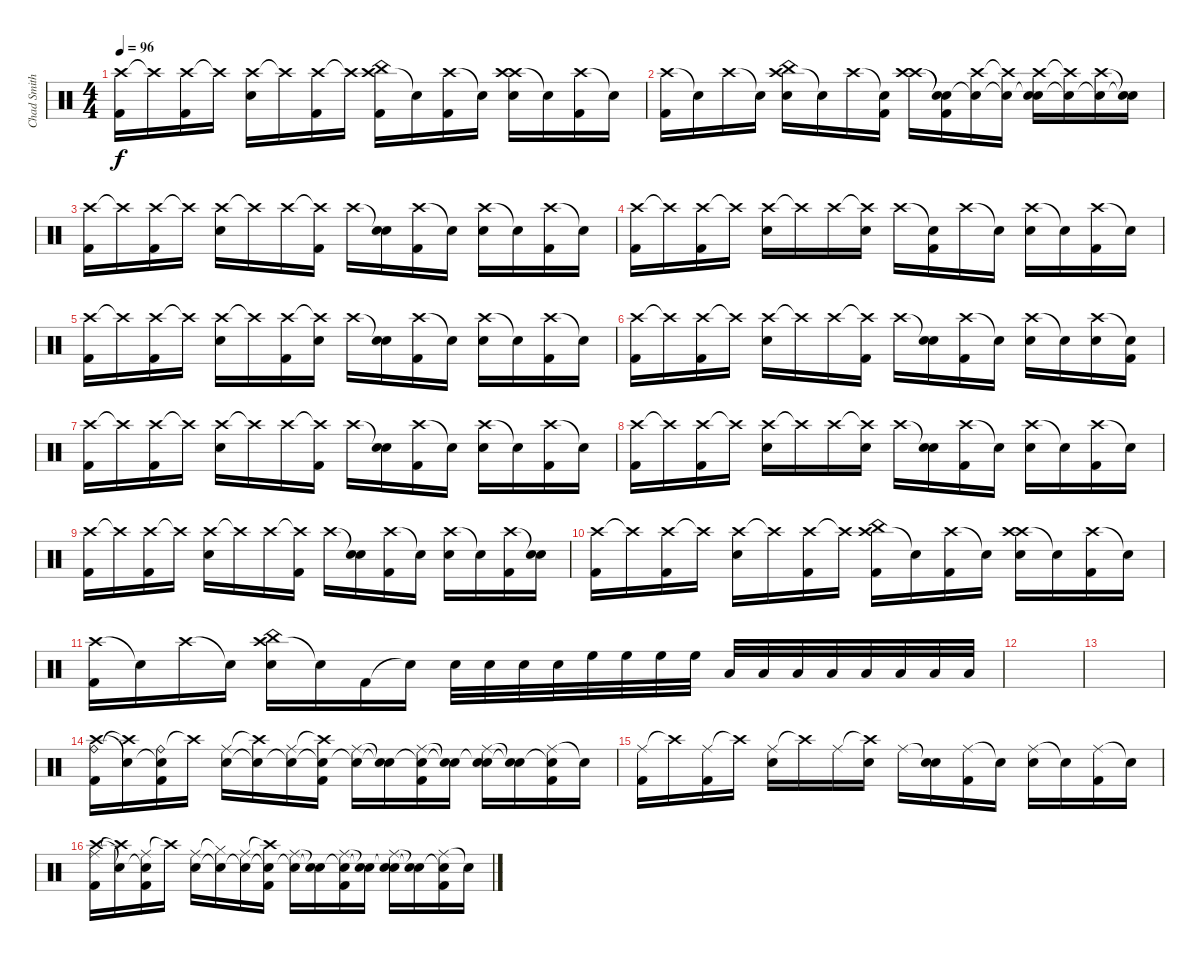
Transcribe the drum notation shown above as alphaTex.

\track ("Chad Smith" "Chad Smith") {mute instrument percussion}
\staff {score}
\articulation defaults
\ts (4 4)
\tempo 96
\clef neutral
\ks c
("Crash high (hit)" "Kick (hit) 2").16{dy f} "Crash high (hit)"{t}.16 ("Crash high (hit)" "Kick (hit) 2").16 "Crash high (hit)"{t}.16 ("Crash high (hit)" "Snare (hit) 2").16 "Crash high (hit)"{t}.16 ("Crash high (hit)" "Kick (hit) 2").16 "Crash high (hit)"{t}.16 ("Crash high (hit)" "China (hit)" "Kick (hit) 2").16 "Snare (hit)"{t}.16 ("Crash high (hit)" "Kick (hit) 2").16 "Snare (hit)"{t}.16 ("Crash high (hit)" "Crash high (hit)" "Snare (hit) 2").16 "Snare (hit)"{t}.16 ("Crash high (hit)" "Kick (hit) 2").16 "Snare (hit)"{t}.16 |
("Crash high (hit)" "Kick (hit) 2").16 "Snare (hit)"{t}.16 "Crash high (hit)".16 "Snare (hit)"{t}.16 ("Crash high (hit)" "China (hit)" "Snare (hit) 2").16 "Snare (hit)"{t}.16 "Crash high (hit)".16 ("Snare (hit)"{t} "Kick (hit) 2").16 ("Crash high (hit)" "Crash high (hit)").16 ("Snare (hit)"{t} "Snare (hit)"{t} "Kick (hit) 2").16 ("Crash high (hit)" "Snare (hit)"{t}).16 ("Crash high (hit)"{t} "Snare (hit)"{t}).16 ("Crash high (hit)" "Snare (hit)"{t} "Snare (hit) 2").16 ("Crash high (hit)"{t} "Snare (hit)"{t}).16 ("Crash high (hit)" "Snare (hit)"{t}).16 ("Snare (hit)"{t} "Snare (hit)"{t}).16 |
("Crash high (hit)" "Kick (hit) 2").16 "Crash high (hit)"{t}.16 ("Crash high (hit)" "Kick (hit) 2").16 "Crash high (hit)"{t}.16 ("Crash high (hit)" "Snare (hit) 2").16 "Crash high (hit)"{t}.16 "Crash high (hit)".16 ("Crash high (hit)"{t} "Kick (hit) 2").16 "Crash high (hit)".16 ("Snare (hit)"{t} "Snare (hit) 2").16 ("Crash high (hit)" "Kick (hit) 2").16 "Snare (hit)"{t}.16 ("Crash high (hit)" "Snare (hit) 2").16 "Snare (hit)"{t}.16 ("Crash high (hit)" "Kick (hit) 2").16 "Snare (hit)"{t}.16 |
("Crash high (hit)" "Kick (hit) 2").16 "Crash high (hit)"{t}.16 ("Crash high (hit)" "Kick (hit) 2").16 "Crash high (hit)"{t}.16 ("Crash high (hit)" "Snare (hit) 2").16 "Crash high (hit)"{t}.16 "Crash high (hit)".16 ("Crash high (hit)"{t} "Snare (hit) 2").16 "Crash high (hit)".16 ("Snare (hit)"{t} "Kick (hit) 2").16 "Crash high (hit)".16 "Snare (hit)"{t}.16 ("Crash high (hit)" "Snare (hit) 2").16 "Snare (hit)"{t}.16 ("Crash high (hit)" "Kick (hit) 2").16 "Snare (hit)"{t}.16 |
("Crash high (hit)" "Kick (hit) 2").16 "Crash high (hit)"{t}.16 ("Crash high (hit)" "Kick (hit) 2").16 "Crash high (hit)"{t}.16 ("Crash high (hit)" "Snare (hit) 2").16 "Crash high (hit)"{t}.16 ("Crash high (hit)" "Kick (hit) 2").16 ("Crash high (hit)"{t} "Snare (hit) 2").16 "Crash high (hit)".16 ("Snare (hit)"{t} "Snare (hit) 2").16 ("Crash high (hit)" "Kick (hit) 2").16 "Snare (hit)"{t}.16 ("Crash high (hit)" "Snare (hit) 2").16 "Snare (hit)"{t}.16 ("Crash high (hit)" "Kick (hit) 2").16 "Snare (hit)"{t}.16 |
("Crash high (hit)" "Kick (hit) 2").16 "Crash high (hit)"{t}.16 ("Crash high (hit)" "Kick (hit) 2").16 "Crash high (hit)"{t}.16 ("Crash high (hit)" "Snare (hit) 2").16 "Crash high (hit)"{t}.16 "Crash high (hit)".16 ("Crash high (hit)"{t} "Kick (hit) 2").16 "Crash high (hit)".16 ("Snare (hit)"{t} "Snare (hit) 2").16 ("Crash high (hit)" "Kick (hit) 2").16 "Snare (hit)"{t}.16 ("Crash high (hit)" "Snare (hit) 2").16 "Snare (hit)"{t}.16 ("Crash high (hit)" "Snare (hit) 2").16 ("Snare (hit)"{t} "Kick (hit) 2").16 |
("Crash high (hit)" "Kick (hit) 2").16 "Crash high (hit)"{t}.16 ("Crash high (hit)" "Kick (hit) 2").16 "Crash high (hit)"{t}.16 ("Crash high (hit)" "Snare (hit) 2").16 "Crash high (hit)"{t}.16 "Crash high (hit)".16 ("Crash high (hit)"{t} "Kick (hit) 2").16 "Crash high (hit)".16 ("Snare (hit)"{t} "Snare (hit) 2").16 ("Crash high (hit)" "Kick (hit) 2").16 "Snare (hit)"{t}.16 ("Crash high (hit)" "Snare (hit) 2").16 "Snare (hit)"{t}.16 ("Crash high (hit)" "Kick (hit) 2").16 "Snare (hit)"{t}.16 |
("Crash high (hit)" "Kick (hit) 2").16 "Crash high (hit)"{t}.16 ("Crash high (hit)" "Kick (hit) 2").16 "Crash high (hit)"{t}.16 ("Crash high (hit)" "Snare (hit) 2").16 "Crash high (hit)"{t}.16 "Crash high (hit)".16 ("Crash high (hit)"{t} "Snare (hit) 2").16 "Crash high (hit)".16 ("Snare (hit)"{t} "Snare (hit) 2").16 ("Crash high (hit)" "Kick (hit) 2").16 "Snare (hit)"{t}.16 ("Crash high (hit)" "Snare (hit) 2").16 "Snare (hit)"{t}.16 ("Crash high (hit)" "Kick (hit) 2").16 "Snare (hit)"{t}.16 |
("Crash high (hit)" "Kick (hit) 2").16 "Crash high (hit)"{t}.16 ("Crash high (hit)" "Kick (hit) 2").16 "Crash high (hit)"{t}.16 ("Crash high (hit)" "Snare (hit) 2").16 "Crash high (hit)"{t}.16 "Crash high (hit)".16 ("Crash high (hit)"{t} "Kick (hit) 2").16 "Crash high (hit)".16 ("Snare (hit)"{t} "Snare (hit) 2").16 ("Crash high (hit)" "Kick (hit) 2").16 "Snare (hit)"{t}.16 ("Crash high (hit)" "Snare (hit) 2").16 "Snare (hit)"{t}.16 ("Crash high (hit)" "Kick (hit) 2").16 ("Snare (hit)"{t} "Snare (hit) 2").16 |
("Crash high (hit)" "Kick (hit) 2").16 "Crash high (hit)"{t}.16 ("Crash high (hit)" "Kick (hit) 2").16 "Crash high (hit)"{t}.16 ("Crash high (hit)" "Snare (hit) 2").16 "Crash high (hit)"{t}.16 ("Crash high (hit)" "Kick (hit) 2").16 "Crash high (hit)"{t}.16 ("Crash high (hit)" "China (hit)" "Kick (hit) 2").16 "Snare (hit)"{t}.16 ("Crash high (hit)" "Kick (hit) 2").16 "Snare (hit)"{t}.16 ("Crash high (hit)" "Crash high (hit)" "Snare (hit) 2").16 "Snare (hit)"{t}.16 ("Crash high (hit)" "Kick (hit) 2").16 "Snare (hit)"{t}.16 |
("Crash high (hit)" "Kick (hit) 2").16 "Snare (hit)"{t}.16 "Crash high (hit)".16 "Snare (hit)"{t}.16 ("Crash high (hit)" "China (hit)" "Snare (hit) 2").16 "Snare (hit)"{t}.16 "Kick (hit) 2".16 "Snare (hit)"{t}.16 "Snare (hit) 2".32 "Snare (hit) 2".32 "Snare (hit) 2".32 "Snare (hit) 2".32 "High Floor Tom (hit)".32 "High Floor Tom (hit)".32 "High Floor Tom (hit)".32 "High Floor Tom (hit)".32 "Low Tom (hit)".32 "Low Tom (hit)".32 "Low Tom (hit)".32 "Low Tom (hit)".32 "Low Floor Tom (hit)".32 "Low Floor Tom (hit)".32 "Low Floor Tom (hit)".32 "Low Floor Tom (hit)".32 |
|
|
("Ride (bell)" "Crash high (hit)" "Kick (hit) 2").16 ("Crash high (hit)"{t} "Snare (hit)"{t}).16 ("Ride (bell)" "Snare (hit)"{t} "Kick (hit) 2").16 "Crash high (hit)"{t}.16 ("Ride (middle)" "Snare (hit) 2").16 ("Crash high (hit)"{t} "Snare (hit)"{t}).16 ("Ride (middle)" "Snare (hit)"{t}).16 ("Crash high (hit)"{t} "Snare (hit)"{t} "Kick (hit) 2").16 ("Ride (middle)" "Snare (hit)"{t}).16 ("Snare (hit)"{t} "Snare (hit)"{t}).16 ("Ride (middle)" "Snare (hit)"{t} "Kick (hit) 2").16 ("Snare (hit)"{t} "Snare (hit)"{t}).16 ("Ride (middle)" "Snare (hit)"{t} "Snare (hit) 2").16 ("Snare (hit)"{t} "Snare (hit)"{t}).16 ("Ride (middle)" "Snare (hit)"{t} "Kick (hit) 2").16 "Snare (hit)"{t}.16 |
("Ride (middle)" "Kick (hit) 2").16 "Crash high (hit)"{t}.16 ("Ride (middle)" "Kick (hit) 2").16 "Crash high (hit)"{t}.16 ("Ride (middle)" "Snare (hit) 2").16 "Crash high (hit)"{t}.16 "Ride (middle)".16 ("Crash high (hit)"{t} "Snare (hit) 2").16 "Ride (middle)".16 ("Snare (hit)"{t} "Snare (hit) 2").16 ("Ride (middle)" "Kick (hit) 2").16 "Snare (hit)"{t}.16 ("Ride (middle)" "Snare (hit) 2").16 "Snare (hit)"{t}.16 ("Ride (middle)" "Kick (hit) 2").16 "Snare (hit)"{t}.16 |
("Ride (middle)" "Crash high (hit)" "Kick (hit) 2").16 ("Crash high (hit)"{t} "Snare (hit)"{t}).16 ("Ride (middle)" "Snare (hit)"{t} "Kick (hit) 2").16 "Crash high (hit)"{t}.16 ("Ride (middle)" "Snare (hit) 2").16 ("Hi-Hat (closed)"{t} "Snare (hit)"{t}).16 ("Ride (middle)" "Snare (hit)"{t}).16 ("Crash high (hit)"{t} "Snare (hit)"{t} "Kick (hit) 2").16 ("Ride (middle)" "Snare (hit)"{t}).16 ("Snare (hit)"{t} "Snare (hit)"{t}).16 ("Ride (middle)" "Snare (hit)"{t} "Kick (hit) 2").16 ("Snare (hit)"{t} "Snare (hit)"{t}).16 ("Ride (middle)" "Snare (hit)"{t} "Snare (hit) 2").16 ("Snare (hit)"{t} "Snare (hit)"{t}).16 ("Ride (middle)" "Snare (hit)"{t} "Kick (hit) 2").16 "Snare (hit)"{t}.16
